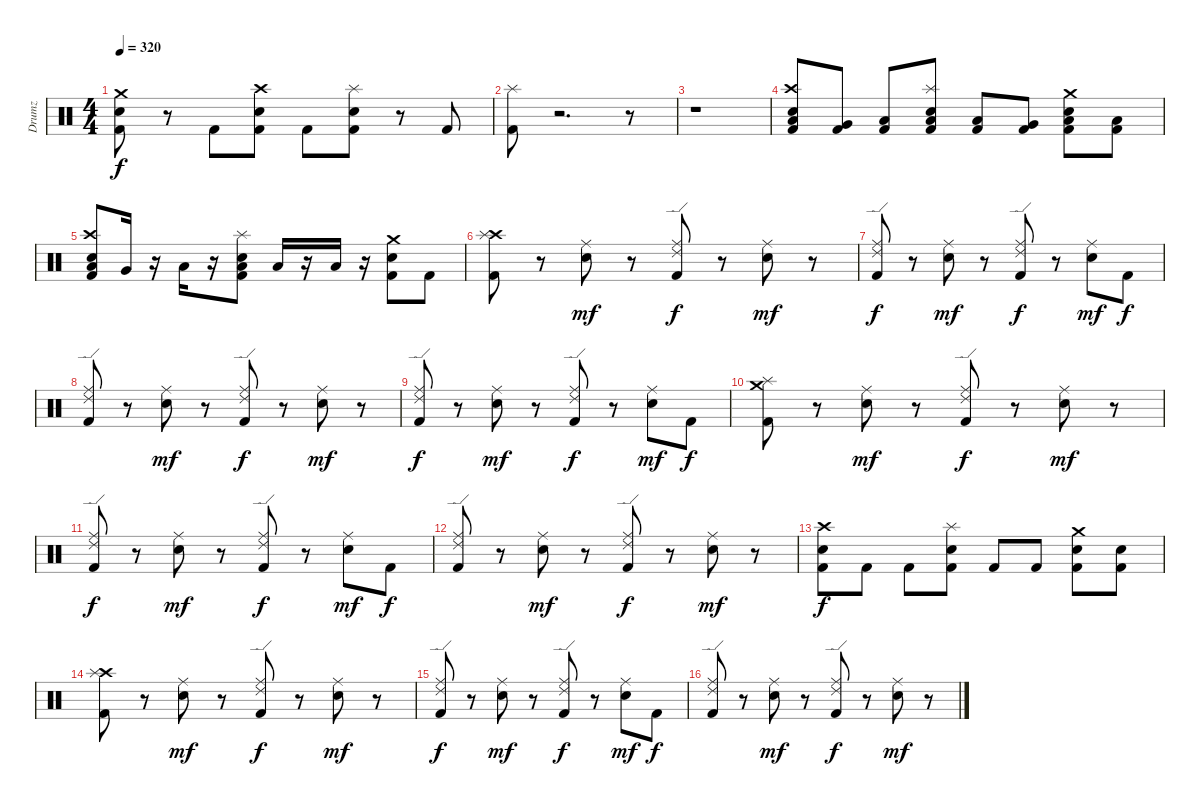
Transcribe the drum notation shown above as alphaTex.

\track ("Drumz" "Drumz") {instrument percussion}
\staff {score}
\articulation defaults
\ts (4 4)
\tempo 320
\clef neutral
\ks c
("Crash medium (hit)" "Snare (hit) 2" "Kick (hit) 2").8{dy f} r.8 "Kick (hit) 2".8 ("Crash high (hit)" "Snare (hit) 2" "Kick (hit) 2").8 "Kick (hit) 2".8 ("Splash (hit)" "Snare (hit) 2" "Kick (hit) 2").8 r.8 "Kick (hit) 2".8 |
("Kick (hit) 2" "Splash (hit)").8 r.2{d} r.8 |
r.1 |
("Crash high (hit)" "Kick (hit) 2" "Snare (hit) 2" "Low Tom (hit)").8 ("Very Low Tom (hit)" "Kick (hit) 2").8 ("Low Floor Tom (hit)" "Kick (hit) 2").8 ("Splash (hit)" "Kick (hit) 2" "Snare (hit) 2" "Low Floor Tom (hit)").8 ("Low Tom (hit)" "Kick (hit) 2").8 ("Very Low Tom (hit)" "Kick (hit) 2").8 ("Crash medium (hit)" "Kick (hit) 2" "Snare (hit) 2" "Low Floor Tom (hit)").8 ("Low Floor Tom (hit)" "Kick (hit) 2").8 |
("Low Tom (hit)" "Kick (hit) 2" "Snare (hit) 2" "Crash high (hit)").8 "Very Low Tom (hit)".16 r.16 "Low Floor Tom (hit)".16 r.16 ("Low Floor Tom (hit)" "Kick (hit) 2" "Snare (hit) 2" "Splash (hit)").8 "Low Floor Tom (hit)".16 r.16 "Low Floor Tom (hit)".16 r.16 ("Kick (hit) 2" "Snare (hit) 2" "Crash medium (hit)").8 "Kick (hit) 2".8 |
("Kick (hit) 2" "Crash high (hit)" "Splash (hit)").8 r.8 ("Snare (hit) 2" "Ride (middle)").8{dy mf} r.8 ("Ride (edge) 2" "Kick (hit) 2" "Ride (middle)").8{dy f} r.8 ("Snare (hit) 2" "Ride (middle)").8{dy mf} r.8 |
("Kick (hit) 2" "Ride (middle)" "Ride (edge) 2").8{dy f} r.8 ("Snare (hit) 2" "Ride (middle)").8{dy mf} r.8 ("Kick (hit) 2" "Ride (middle)" "Ride (edge) 2").8{dy f} r.8 ("Snare (hit) 2" "Ride (middle)").8{dy mf} "Kick (hit) 2".8{dy f} |
("Kick (hit) 2" "Ride (middle)" "Ride (edge) 2").8 r.8 ("Snare (hit) 2" "Ride (middle)").8{dy mf} r.8 ("Ride (edge) 2" "Kick (hit) 2" "Ride (middle)").8{dy f} r.8 ("Snare (hit) 2" "Ride (middle)").8{dy mf} r.8 |
("Kick (hit) 2" "Ride (middle)" "Ride (edge) 2").8{dy f} r.8 ("Snare (hit) 2" "Ride (middle)").8{dy mf} r.8 ("Kick (hit) 2" "Ride (middle)" "Ride (edge) 2").8{dy f} r.8 ("Snare (hit) 2" "Ride (middle)").8{dy mf} "Kick (hit) 2".8{dy f} |
("Crash medium (hit)" "Kick (hit) 2" "Splash (hit)").8 r.8 ("Snare (hit) 2" "Ride (middle)").8{dy mf} r.8 ("Ride (edge) 2" "Kick (hit) 2" "Ride (middle)").8{dy f} r.8 ("Snare (hit) 2" "Ride (middle)").8{dy mf} r.8 |
("Kick (hit) 2" "Ride (middle)" "Ride (edge) 2").8{dy f} r.8 ("Snare (hit) 2" "Ride (middle)").8{dy mf} r.8 ("Kick (hit) 2" "Ride (middle)" "Ride (edge) 2").8{dy f} r.8 ("Snare (hit) 2" "Ride (middle)").8{dy mf} "Kick (hit) 2".8{dy f} |
("Kick (hit) 2" "Ride (middle)" "Ride (edge) 2").8 r.8 ("Snare (hit) 2" "Ride (middle)").8{dy mf} r.8 ("Kick (hit) 2" "Ride (middle)" "Ride (edge) 2").8{dy f} r.8 ("Snare (hit) 2" "Ride (middle)").8{dy mf} r.8 |
("Snare (hit) 2" "Kick (hit) 2" "Crash high (hit)").8{dy f} "Kick (hit) 2".8 "Kick (hit) 2".8 ("Kick (hit) 2" "Snare (hit) 2" "Splash (hit)").8 "Kick (hit) 2".8 "Kick (hit) 2".8 ("Snare (hit) 2" "Kick (hit) 2" "Crash medium (hit)").8 ("Snare (hit) 2" "Kick (hit) 2").8 |
("Kick (hit) 2" "Crash high (hit)" "Splash (hit)").8 r.8 ("Snare (hit) 2" "Ride (middle)").8{dy mf} r.8 ("Ride (edge) 2" "Kick (hit) 2" "Ride (middle)").8{dy f} r.8 ("Snare (hit) 2" "Ride (middle)").8{dy mf} r.8 |
("Kick (hit) 2" "Ride (middle)" "Ride (edge) 2").8{dy f} r.8 ("Snare (hit) 2" "Ride (middle)").8{dy mf} r.8 ("Kick (hit) 2" "Ride (middle)" "Ride (edge) 2").8{dy f} r.8 ("Snare (hit) 2" "Ride (middle)").8{dy mf} "Kick (hit) 2".8{dy f} |
("Kick (hit) 2" "Ride (middle)" "Ride (edge) 2").8 r.8 ("Snare (hit) 2" "Ride (middle)").8{dy mf} r.8 ("Ride (edge) 2" "Kick (hit) 2" "Ride (middle)").8{dy f} r.8 ("Snare (hit) 2" "Ride (middle)").8{dy mf} r.8
